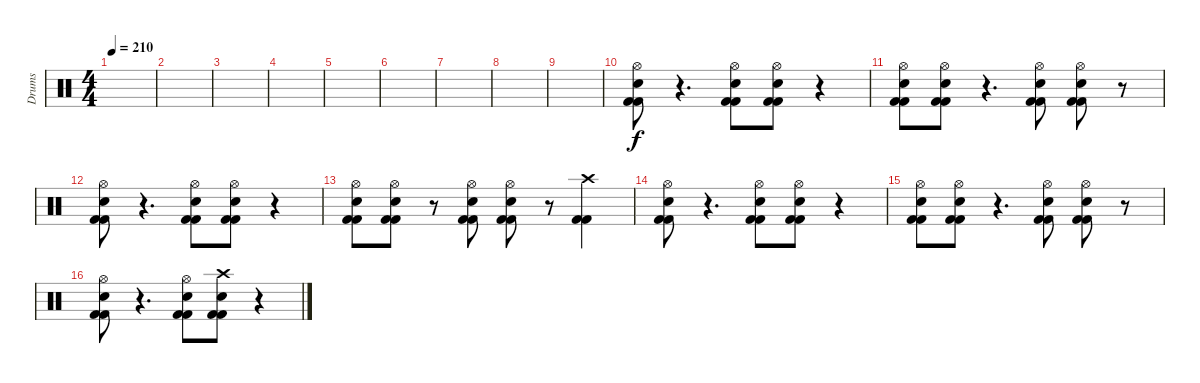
\track ("Drums" "Drums") {instrument percussion}
\staff {score}
\articulation defaults
\ts (4 4)
\tempo 210
\clef neutral
\ks c
|
|
|
|
|
|
|
|
|
("Hi-Hat (open)" "Snare (hit) 2" "Kick (hit) 2" "Kick (hit) 2").8 r.4{d} ("Hi-Hat (open)" "Snare (hit) 2" "Kick (hit) 2" "Kick (hit) 2").8 ("Hi-Hat (open)" "Snare (hit) 2" "Kick (hit) 2" "Kick (hit) 2").8 r.4 |
("Hi-Hat (open)" "Snare (hit) 2" "Kick (hit) 2" "Kick (hit) 2").8 ("Hi-Hat (open)" "Snare (hit) 2" "Kick (hit) 2" "Kick (hit) 2").8 r.4{d} ("Hi-Hat (open)" "Snare (hit) 2" "Kick (hit) 2" "Kick (hit) 2").8 ("Hi-Hat (open)" "Snare (hit) 2" "Kick (hit) 2" "Kick (hit) 2").8 r.8 |
("Hi-Hat (open)" "Electric Snare (hit)" "Kick (hit) 2" "Kick (hit) 2").8 r.4{d} ("Hi-Hat (open)" "Snare (hit) 2" "Kick (hit) 2" "Kick (hit) 2").8 ("Hi-Hat (open)" "Electric Snare (hit)" "Kick (hit) 2" "Kick (hit) 2").8 r.4 |
("Hi-Hat (open)" "Snare (hit) 2" "Kick (hit) 2" "Kick (hit) 2").8 ("Hi-Hat (open)" "Electric Snare (hit)" "Kick (hit) 2" "Kick (hit) 2").8 r.8 ("Hi-Hat (open)" "Snare (hit) 2" "Kick (hit) 2" "Kick (hit) 2").8 ("Hi-Hat (open)" "Electric Snare (hit)" "Kick (hit) 2" "Kick (hit) 2").8 r.8 ("Crash high (hit)" "Kick (hit) 2" "Kick (hit) 2").4 |
("Hi-Hat (open)" "Snare (hit) 2" "Kick (hit) 2" "Kick (hit) 2").8 r.4{d} ("Hi-Hat (open)" "Snare (hit) 2" "Kick (hit) 2" "Kick (hit) 2").8 ("Hi-Hat (open)" "Snare (hit) 2" "Kick (hit) 2" "Kick (hit) 2").8 r.4 |
("Hi-Hat (open)" "Snare (hit) 2" "Kick (hit) 2" "Kick (hit) 2").8 ("Hi-Hat (open)" "Snare (hit) 2" "Kick (hit) 2" "Kick (hit) 2").8 r.4{d} ("Hi-Hat (open)" "Snare (hit) 2" "Kick (hit) 2" "Kick (hit) 2").8 ("Hi-Hat (open)" "Snare (hit) 2" "Kick (hit) 2" "Kick (hit) 2").8 r.8 |
("Hi-Hat (open)" "Snare (hit) 2" "Kick (hit) 2" "Kick (hit) 2").8 r.4{d} ("Hi-Hat (open)" "Snare (hit) 2" "Kick (hit) 2" "Kick (hit) 2").8 ("Crash high (hit)" "Electric Snare (hit)" "Kick (hit) 2" "Kick (hit) 2").8 r.4
